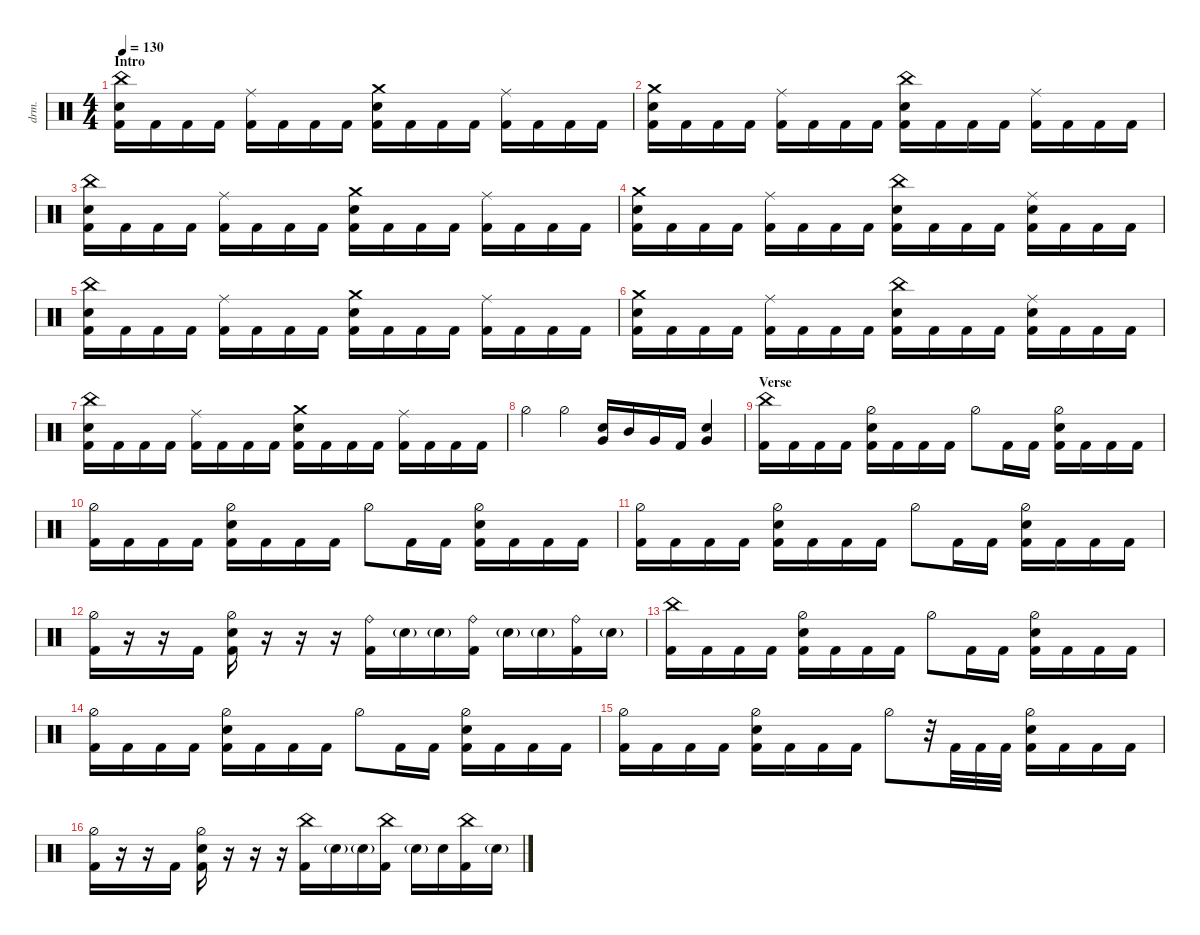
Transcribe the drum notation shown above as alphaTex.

\defaultSystemsLayout 4
\hideDynamics
\bracketExtendMode nobrackets
\track ("Drums - Šimon" "drm.") {instrument percussion}
\staff {score}
\articulation defaults
\ts (4 4)
\section ("" "Intro")
\tempo 130
\clef neutral
\ks c
("Kick (hit) 2" "China (hit)" "Snare (hit) 2").16{dy ff beam Down} "Kick (hit) 2".16{beam Down} "Kick (hit) 2".16{beam Down} "Kick (hit) 2".16{beam Down} ("Kick (hit) 2" "Ride (middle)").16{beam Down} "Kick (hit) 2".16{beam Down} "Kick (hit) 2".16{beam Down} "Kick (hit) 2".16{beam Down} ("Kick (hit) 2" "Crash medium (hit)" "Snare (hit) 2").16{beam Down} "Kick (hit) 2".16{beam Down} "Kick (hit) 2".16{beam Down} "Kick (hit) 2".16{beam Down} ("Kick (hit) 2" "Ride (middle)").16{beam Down} "Kick (hit) 2".16{beam Down} "Kick (hit) 2".16{beam Down} "Kick (hit) 2".16{beam Down} |
("Kick (hit) 2" "Crash medium (hit)" "Snare (hit) 2").16{beam Down} "Kick (hit) 2".16{beam Down} "Kick (hit) 2".16{beam Down} "Kick (hit) 2".16{beam Down} ("Kick (hit) 2" "Ride (middle)").16{beam Down} "Kick (hit) 2".16{beam Down} "Kick (hit) 2".16{beam Down} "Kick (hit) 2".16{beam Down} ("Kick (hit) 2" "China (hit)" "Snare (hit) 2").16{beam Down} "Kick (hit) 2".16{beam Down} "Kick (hit) 2".16{beam Down} "Kick (hit) 2".16{beam Down} ("Kick (hit) 2" "Ride (middle)").16{beam Down} "Kick (hit) 2".16{beam Down} "Kick (hit) 2".16{beam Down} "Kick (hit) 2".16{beam Down} |
("Kick (hit) 2" "China (hit)" "Snare (hit) 2").16{beam Down} "Kick (hit) 2".16{beam Down} "Kick (hit) 2".16{beam Down} "Kick (hit) 2".16{beam Down} ("Kick (hit) 2" "Ride (middle)").16{beam Down} "Kick (hit) 2".16{beam Down} "Kick (hit) 2".16{beam Down} "Kick (hit) 2".16{beam Down} ("Kick (hit) 2" "Crash medium (hit)" "Snare (hit) 2").16{beam Down} "Kick (hit) 2".16{beam Down} "Kick (hit) 2".16{beam Down} "Kick (hit) 2".16{beam Down} ("Kick (hit) 2" "Ride (middle)").16{beam Down} "Kick (hit) 2".16{beam Down} "Kick (hit) 2".16{beam Down} "Kick (hit) 2".16{beam Down} |
("Kick (hit) 2" "Crash medium (hit)" "Snare (hit) 2").16{beam Down} "Kick (hit) 2".16{beam Down} "Kick (hit) 2".16{beam Down} "Kick (hit) 2".16{beam Down} ("Kick (hit) 2" "Ride (middle)").16{beam Down} "Kick (hit) 2".16{beam Down} "Kick (hit) 2".16{beam Down} "Kick (hit) 2".16{beam Down} ("Kick (hit) 2" "China (hit)" "Snare (hit) 2").16{beam Down} "Kick (hit) 2".16{beam Down} "Kick (hit) 2".16{beam Down} "Kick (hit) 2".16{beam Down} ("Kick (hit) 2" "Ride (middle)" "Snare (hit) 2").16{beam Down} "Kick (hit) 2".16{beam Down} "Kick (hit) 2".16{beam Down} "Kick (hit) 2".16{beam Down} |
("Kick (hit) 2" "China (hit)" "Snare (hit) 2").16{beam Down} "Kick (hit) 2".16{beam Down} "Kick (hit) 2".16{beam Down} "Kick (hit) 2".16{beam Down} ("Kick (hit) 2" "Ride (middle)").16{beam Down} "Kick (hit) 2".16{beam Down} "Kick (hit) 2".16{beam Down} "Kick (hit) 2".16{beam Down} ("Kick (hit) 2" "Crash medium (hit)" "Snare (hit) 2").16{beam Down} "Kick (hit) 2".16{beam Down} "Kick (hit) 2".16{beam Down} "Kick (hit) 2".16{beam Down} ("Kick (hit) 2" "Ride (middle)").16{beam Down} "Kick (hit) 2".16{beam Down} "Kick (hit) 2".16{beam Down} "Kick (hit) 2".16{beam Down} |
("Kick (hit) 2" "Crash medium (hit)" "Snare (hit) 2").16{beam Down} "Kick (hit) 2".16{beam Down} "Kick (hit) 2".16{beam Down} "Kick (hit) 2".16{beam Down} ("Kick (hit) 2" "Ride (middle)").16{beam Down} "Kick (hit) 2".16{beam Down} "Kick (hit) 2".16{beam Down} "Kick (hit) 2".16{beam Down} ("Kick (hit) 2" "China (hit)" "Snare (hit) 2").16{beam Down} "Kick (hit) 2".16{beam Down} "Kick (hit) 2".16{beam Down} "Kick (hit) 2".16{beam Down} ("Kick (hit) 2" "Ride (middle)" "Snare (hit) 2").16{beam Down} "Kick (hit) 2".16{beam Down} "Kick (hit) 2".16{beam Down} "Kick (hit) 2".16{beam Down} |
("Kick (hit) 2" "China (hit)" "Snare (hit) 2").16{beam Down} "Kick (hit) 2".16{beam Down} "Kick (hit) 2".16{beam Down} "Kick (hit) 2".16{beam Down} ("Kick (hit) 2" "Ride (middle)").16{beam Down} "Kick (hit) 2".16{beam Down} "Kick (hit) 2".16{beam Down} "Kick (hit) 2".16{beam Down} ("Kick (hit) 2" "Crash medium (hit)" "Snare (hit) 2").16{beam Down} "Kick (hit) 2".16{beam Down} "Kick (hit) 2".16{beam Down} "Kick (hit) 2".16{beam Down} ("Kick (hit) 2" "Ride (middle)").16{beam Down} "Kick (hit) 2".16{beam Down} "Kick (hit) 2".16{beam Down} "Kick (hit) 2".16{beam Down} |
"Hi-Hat (half)".4{beam Down} "Hi-Hat (half)".4{beam Down} ("Snare (hit) 2" "Very Low Tom (hit)").16{beam Up} "Mid Tom (hit)".16{beam Up} "Very Low Tom (hit)".16{beam Up} "Kick (hit) 2".16{beam Up} ("Snare (hit) 2" "Very Low Tom (hit)").4{beam Up} |
\section ("" "Verse")
("Kick (hit) 2" "China (hit)").16{beam Down} "Kick (hit) 2".16{beam Down} "Kick (hit) 2".16{beam Down} "Kick (hit) 2".16{beam Down} ("Kick (hit) 2" "Snare (hit) 2" "Hi-Hat (half)").16{beam Down} "Kick (hit) 2".16{beam Down} "Kick (hit) 2".16{beam Down} "Kick (hit) 2".16{beam Down} "Hi-Hat (half)".8{beam Down} "Kick (hit) 2".16{beam Down} "Kick (hit) 2".16{beam Down} ("Kick (hit) 2" "Snare (hit) 2" "Hi-Hat (half)").16{beam Down} "Kick (hit) 2".16{beam Down} "Kick (hit) 2".16{beam Down} "Kick (hit) 2".16{beam Down} |
("Kick (hit) 2" "Hi-Hat (half)").16{beam Down} "Kick (hit) 2".16{beam Down} "Kick (hit) 2".16{beam Down} "Kick (hit) 2".16{beam Down} ("Kick (hit) 2" "Snare (hit) 2" "Hi-Hat (half)").16{beam Down} "Kick (hit) 2".16{beam Down} "Kick (hit) 2".16{beam Down} "Kick (hit) 2".16{beam Down} "Hi-Hat (half)".8{beam Down} "Kick (hit) 2".16{beam Down} "Kick (hit) 2".16{beam Down} ("Kick (hit) 2" "Snare (hit) 2" "Hi-Hat (half)").16{beam Down} "Kick (hit) 2".16{beam Down} "Kick (hit) 2".16{beam Down} "Kick (hit) 2".16{beam Down} |
("Kick (hit) 2" "Hi-Hat (half)").16{beam Down} "Kick (hit) 2".16{beam Down} "Kick (hit) 2".16{beam Down} "Kick (hit) 2".16{beam Down} ("Kick (hit) 2" "Snare (hit) 2" "Hi-Hat (half)").16{beam Down} "Kick (hit) 2".16{beam Down} "Kick (hit) 2".16{beam Down} "Kick (hit) 2".16{beam Down} "Hi-Hat (half)".8{beam Down} "Kick (hit) 2".16{beam Down} "Kick (hit) 2".16{beam Down} ("Kick (hit) 2" "Snare (hit) 2" "Hi-Hat (half)").16{beam Down} "Kick (hit) 2".16{beam Down} "Kick (hit) 2".16{beam Down} "Kick (hit) 2".16{beam Down} |
("Kick (hit) 2" "Hi-Hat (half)").16{beam Down} r.16{beam Down} r.16{beam Down} "Kick (hit) 2".16{beam Down} ("Kick (hit) 2" "Snare (hit) 2" "Hi-Hat (half)").16{beam Down} r.16{beam Down} r.16{beam Down} r.16{beam Down} ("Kick (hit) 2" "Ride (bell)").16{beam Down} "Snare (hit) 2"{g}.16{beam Down} "Snare (hit) 2"{g}.16{beam Down} ("Kick (hit) 2" "Ride (bell)").16{beam Down} "Snare (hit) 2"{g}.16{beam Down} "Snare (hit) 2"{g}.16{beam Down} ("Kick (hit) 2" "Ride (bell)").16{beam Down} "Snare (hit) 2"{g}.16{beam Down} |
("Kick (hit) 2" "China (hit)").16{beam Down} "Kick (hit) 2".16{beam Down} "Kick (hit) 2".16{beam Down} "Kick (hit) 2".16{beam Down} ("Kick (hit) 2" "Snare (hit) 2" "Hi-Hat (half)").16{beam Down} "Kick (hit) 2".16{beam Down} "Kick (hit) 2".16{beam Down} "Kick (hit) 2".16{beam Down} "Hi-Hat (half)".8{beam Down} "Kick (hit) 2".16{beam Down} "Kick (hit) 2".16{beam Down} ("Kick (hit) 2" "Snare (hit) 2" "Hi-Hat (half)").16{beam Down} "Kick (hit) 2".16{beam Down} "Kick (hit) 2".16{beam Down} "Kick (hit) 2".16{beam Down} |
("Kick (hit) 2" "Hi-Hat (half)").16{beam Down} "Kick (hit) 2".16{beam Down} "Kick (hit) 2".16{beam Down} "Kick (hit) 2".16{beam Down} ("Kick (hit) 2" "Snare (hit) 2" "Hi-Hat (half)").16{beam Down} "Kick (hit) 2".16{beam Down} "Kick (hit) 2".16{beam Down} "Kick (hit) 2".16{beam Down} "Hi-Hat (half)".8{beam Down} "Kick (hit) 2".16{beam Down} "Kick (hit) 2".16{beam Down} ("Kick (hit) 2" "Snare (hit) 2" "Hi-Hat (half)").16{beam Down} "Kick (hit) 2".16{beam Down} "Kick (hit) 2".16{beam Down} "Kick (hit) 2".16{beam Down} |
("Kick (hit) 2" "Hi-Hat (half)").16{beam Down} "Kick (hit) 2".16{beam Down} "Kick (hit) 2".16{beam Down} "Kick (hit) 2".16{beam Down} ("Kick (hit) 2" "Snare (hit) 2" "Hi-Hat (half)").16{beam Down} "Kick (hit) 2".16{beam Down} "Kick (hit) 2".16{beam Down} "Kick (hit) 2".16{beam Down} "Hi-Hat (half)".8{beam Down} r.32{beam Down} "Kick (hit) 2".32{beam Down} "Kick (hit) 2".32{beam Down} "Kick (hit) 2".32{beam Down} ("Kick (hit) 2" "Snare (hit) 2" "Hi-Hat (half)").16{beam Down} "Kick (hit) 2".16{beam Down} "Kick (hit) 2".16{beam Down} "Kick (hit) 2".16{beam Down} |
("Kick (hit) 2" "Hi-Hat (half)").16{beam Down} r.16{beam Down} r.16{beam Down} "Kick (hit) 2".16{beam Down} ("Kick (hit) 2" "Snare (hit) 2" "Hi-Hat (half)").16{beam Down} r.16{beam Down} r.16{beam Down} r.16{beam Down} ("Kick (hit) 2" "China (hit)").16{beam Down} "Snare (hit) 2"{g}.16{beam Down} "Snare (hit) 2"{g}.16{beam Down} ("Kick (hit) 2" "China (hit)").16{beam Down} "Snare (hit) 2"{g}.16{beam Down} "Snare (hit) 2".16{beam Down} ("Kick (hit) 2" "China (hit)").16{beam Down} "Snare (hit) 2"{g}.16{beam Down}
